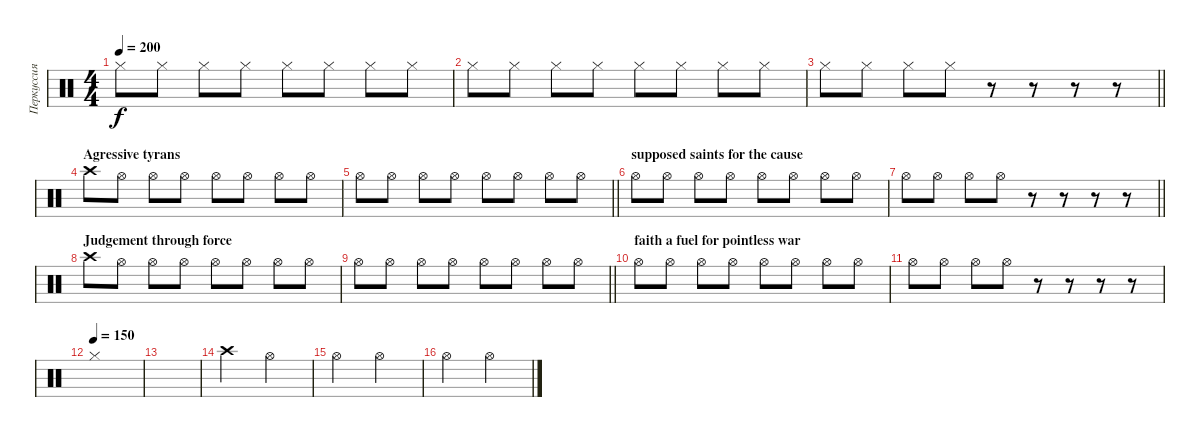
\track ("Перкуссия" "Перкуссия") {instrument percussion}
\staff {score}
\articulation defaults
\ts (4 4)
\tempo 200
\clef neutral
\ks c "Hi-Hat (closed)".8{dy f} "Hi-Hat (closed)".8 "Hi-Hat (closed)".8 "Hi-Hat (closed)".8 "Hi-Hat (closed)".8 "Hi-Hat (closed)".8 "Hi-Hat (closed)".8 "Hi-Hat (closed)".8
|
"Hi-Hat (closed)".8 "Hi-Hat (closed)".8 "Hi-Hat (closed)".8 "Hi-Hat (closed)".8 "Hi-Hat (closed)".8 "Hi-Hat (closed)".8 "Hi-Hat (closed)".8 "Hi-Hat (closed)".8 |
\barLineRight lightlight "Hi-Hat (closed)".8 "Hi-Hat (closed)".8 "Hi-Hat (closed)".8 "Hi-Hat (closed)".8
r.8 r.8 r.8 r.8 |
\section ("" "Agressive tyrans")
"Crash high (hit)".8 "Hi-Hat (open)".8 "Hi-Hat (open)".8 "Hi-Hat (open)".8 "Hi-Hat (open)".8 "Hi-Hat (open)".8 "Hi-Hat (open)".8 "Hi-Hat (open)".8 |
\barLineRight lightlight "Hi-Hat (open)".8 "Hi-Hat (open)".8 "Hi-Hat (open)".8 "Hi-Hat (open)".8 "Hi-Hat (open)".8 "Hi-Hat (open)".8 "Hi-Hat (open)".8 "Hi-Hat (open)".8
|
\section ("" "supposed saints for the cause")
"Hi-Hat (open)".8 "Hi-Hat (open)".8 "Hi-Hat (open)".8 "Hi-Hat (open)".8 "Hi-Hat (open)".8 "Hi-Hat (open)".8 "Hi-Hat (open)".8 "Hi-Hat (open)".8 |
\barLineRight lightlight "Hi-Hat (open)".8 "Hi-Hat (open)".8 "Hi-Hat (open)".8 "Hi-Hat (open)".8
r.8 r.8 r.8 r.8 |
\section ("" "Judgement through force")
"Crash high (hit)".8 "Hi-Hat (open)".8 "Hi-Hat (open)".8 "Hi-Hat (open)".8 "Hi-Hat (open)".8 "Hi-Hat (open)".8 "Hi-Hat (open)".8 "Hi-Hat (open)".8 |
\barLineRight lightlight "Hi-Hat (open)".8 "Hi-Hat (open)".8 "Hi-Hat (open)".8 "Hi-Hat (open)".8 "Hi-Hat (open)".8 "Hi-Hat (open)".8 "Hi-Hat (open)".8 "Hi-Hat (open)".8
|
\section ("" "faith a fuel for pointless war")
"Hi-Hat (open)".8 "Hi-Hat (open)".8 "Hi-Hat (open)".8 "Hi-Hat (open)".8 "Hi-Hat (open)".8 "Hi-Hat (open)".8 "Hi-Hat (open)".8 "Hi-Hat (open)".8 |
"Hi-Hat (open)".8 "Hi-Hat (open)".8 "Hi-Hat (open)".8 "Hi-Hat (open)".8 r.8 r.8 r.8 r.8 |
\tempo (150)
"Hi-Hat (closed)".1 |
|
"Crash high (hit)".2 "Hi-Hat (open)".2 |
"Hi-Hat (open)".2 "Hi-Hat (open)".2 |
"Hi-Hat (open)".2 "Hi-Hat (open)".2
